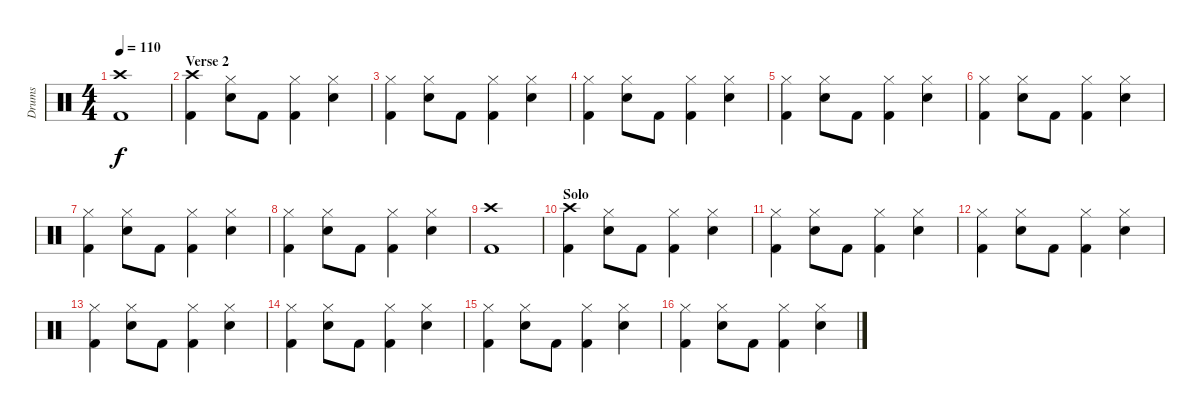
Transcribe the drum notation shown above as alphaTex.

\track ("Drums" "Drums") {instrument percussion}
\staff {score}
\articulation defaults
\ts (4 4)
\tempo 110
\clef neutral
\ks c
("Crash high (hit)" "Kick (hit) 2").1{dy f} |
\section ("" "Verse 2")
("Crash high (hit)" "Kick (hit) 2").4 ("Hi-Hat (closed)" "Snare (hit) 2").8 "Kick (hit) 2".8 ("Hi-Hat (closed)" "Kick (hit) 2").4 ("Hi-Hat (closed)" "Snare (hit) 2").4 |
("Hi-Hat (closed)" "Kick (hit) 2").4 ("Hi-Hat (closed)" "Snare (hit) 2").8 "Kick (hit) 2".8 ("Hi-Hat (closed)" "Kick (hit) 2").4 ("Hi-Hat (closed)" "Snare (hit) 2").4 |
("Hi-Hat (closed)" "Kick (hit) 2").4 ("Hi-Hat (closed)" "Snare (hit) 2").8 "Kick (hit) 2".8 ("Hi-Hat (closed)" "Kick (hit) 2").4 ("Hi-Hat (closed)" "Snare (hit) 2").4 |
("Hi-Hat (closed)" "Kick (hit) 2").4 ("Hi-Hat (closed)" "Snare (hit) 2").8 "Kick (hit) 2".8 ("Hi-Hat (closed)" "Kick (hit) 2").4 ("Hi-Hat (closed)" "Snare (hit) 2").4 |
("Hi-Hat (closed)" "Kick (hit) 2").4 ("Hi-Hat (closed)" "Snare (hit) 2").8 "Kick (hit) 2".8 ("Hi-Hat (closed)" "Kick (hit) 2").4 ("Hi-Hat (closed)" "Snare (hit) 2").4 |
("Hi-Hat (closed)" "Kick (hit) 2").4 ("Hi-Hat (closed)" "Snare (hit) 2").8 "Kick (hit) 2".8 ("Hi-Hat (closed)" "Kick (hit) 2").4 ("Hi-Hat (closed)" "Snare (hit) 2").4 |
("Hi-Hat (closed)" "Kick (hit) 2").4 ("Hi-Hat (closed)" "Snare (hit) 2").8 "Kick (hit) 2".8 ("Hi-Hat (closed)" "Kick (hit) 2").4 ("Hi-Hat (closed)" "Snare (hit) 2").4 |
("Crash high (hit)" "Kick (hit) 2").1 |
\section ("" "Solo")
("Crash high (hit)" "Kick (hit) 2").4 ("Hi-Hat (closed)" "Snare (hit) 2").8 "Kick (hit) 2".8 ("Hi-Hat (closed)" "Kick (hit) 2").4 ("Hi-Hat (closed)" "Snare (hit) 2").4 |
("Hi-Hat (closed)" "Kick (hit) 2").4 ("Hi-Hat (closed)" "Snare (hit) 2").8 "Kick (hit) 2".8 ("Hi-Hat (closed)" "Kick (hit) 2").4 ("Hi-Hat (closed)" "Snare (hit) 2").4 |
("Hi-Hat (closed)" "Kick (hit) 2").4 ("Hi-Hat (closed)" "Snare (hit) 2").8 "Kick (hit) 2".8 ("Hi-Hat (closed)" "Kick (hit) 2").4 ("Hi-Hat (closed)" "Snare (hit) 2").4 |
("Hi-Hat (closed)" "Kick (hit) 2").4 ("Hi-Hat (closed)" "Snare (hit) 2").8 "Kick (hit) 2".8 ("Hi-Hat (closed)" "Kick (hit) 2").4 ("Hi-Hat (closed)" "Snare (hit) 2").4 |
("Hi-Hat (closed)" "Kick (hit) 2").4 ("Hi-Hat (closed)" "Snare (hit) 2").8 "Kick (hit) 2".8 ("Hi-Hat (closed)" "Kick (hit) 2").4 ("Hi-Hat (closed)" "Snare (hit) 2").4 |
("Hi-Hat (closed)" "Kick (hit) 2").4 ("Hi-Hat (closed)" "Snare (hit) 2").8 "Kick (hit) 2".8 ("Hi-Hat (closed)" "Kick (hit) 2").4 ("Hi-Hat (closed)" "Snare (hit) 2").4 |
("Hi-Hat (closed)" "Kick (hit) 2").4 ("Hi-Hat (closed)" "Snare (hit) 2").8 "Kick (hit) 2".8 ("Hi-Hat (closed)" "Kick (hit) 2").4 ("Hi-Hat (closed)" "Snare (hit) 2").4
